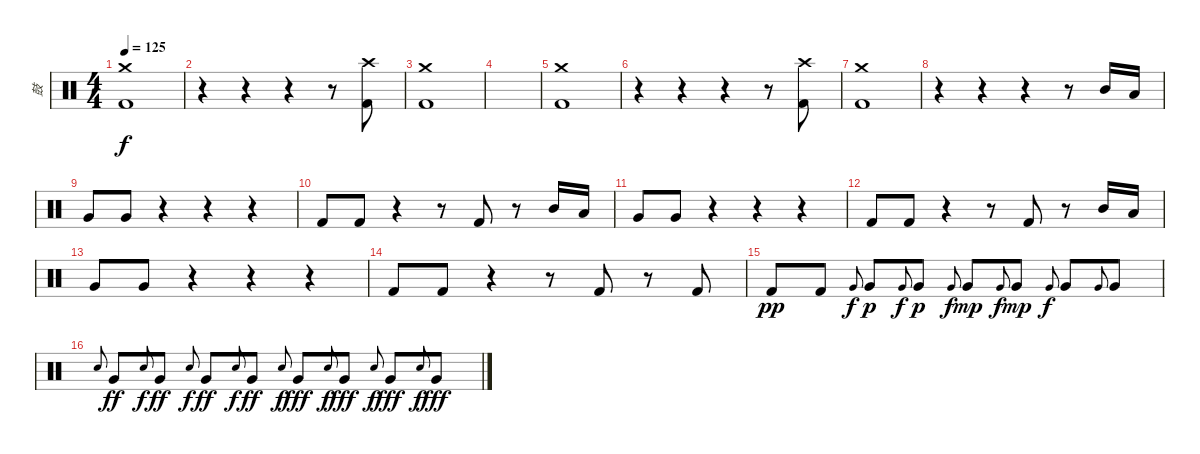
\track ("鼓" "鼓") {instrument percussion}
\staff {score}
\articulation defaults
\ts (4 4)
\tempo 125
\clef neutral
\ks c
("Crash medium (hit)" "Kick (hit) 2").1{dy f} |
r.4 r.4 r.4 r.8 ("Crash high (hit)" "Kick (hit) 2").8 |
("Crash medium (hit)" "Kick (hit) 2").1 |
|
("Crash medium (hit)" "Kick (hit) 2").1 |
r.4 r.4 r.4 r.8 ("Crash high (hit)" "Kick (hit) 2").8 |
("Crash medium (hit)" "Kick (hit) 2").1 |
r.4 r.4 r.4 r.8 "Mid Tom (hit)".16 "Low Tom (hit)".16 |
"Very Low Tom (hit)".8 "Very Low Tom (hit)".8 r.4 r.4 r.4 |
"Kick (hit) 2".8 "Kick (hit) 2".8 r.4 r.8 "Kick (hit) 2".8 r.8 "Mid Tom (hit)".16 "Low Tom (hit)".16 |
"Very Low Tom (hit)".8 "Very Low Tom (hit)".8 r.4 r.4 r.4 |
"Kick (hit) 2".8 "Kick (hit) 2".8 r.4 r.8 "Kick (hit) 2".8 r.8 "Mid Tom (hit)".16 "Low Tom (hit)".16 |
"Very Low Tom (hit)".8 "Very Low Tom (hit)".8 r.4 r.4 r.4 |
"Kick (hit) 2".8 "Kick (hit) 2".8 r.4 r.8 "Kick (hit) 2".8 r.8 "Kick (hit) 2".8 |
"Kick (hit) 2".8{dy pp} "Kick (hit) 2".8 "Very Low Tom (hit)".8{gr onbeat dy f} "Very Low Tom (hit)".8{dy p} "Very Low Tom (hit)".8{gr onbeat dy f} "Very Low Tom (hit)".8{dy p} "Very Low Tom (hit)".8{gr onbeat dy f} "Very Low Tom (hit)".8{dy mp} "Very Low Tom (hit)".8{gr onbeat dy f} "Very Low Tom (hit)".8{dy mp} "Very Low Tom (hit)".8{gr onbeat dy f} "Very Low Tom (hit)".8 "Very Low Tom (hit)".8{gr onbeat} "Very Low Tom (hit)".8 |
"Snare (hit) 2".8{gr onbeat} "Very Low Tom (hit)".8{dy ff} "Snare (hit) 2".8{gr onbeat dy f} "Very Low Tom (hit)".8{dy ff} "Snare (hit) 2".8{gr onbeat dy f} "Very Low Tom (hit)".8{dy ff} "Snare (hit) 2".8{gr onbeat dy f} "Very Low Tom (hit)".8{dy ff} "Snare (hit) 2".8{gr onbeat dy f} "Very Low Tom (hit)".8{dy fff} "Snare (hit) 2".8{gr onbeat dy f} "Very Low Tom (hit)".8{dy fff} "Snare (hit) 2".8{gr onbeat dy f} "Very Low Tom (hit)".8{dy fff} "Snare (hit) 2".8{gr onbeat dy f} "Very Low Tom (hit)".8{dy fff}
